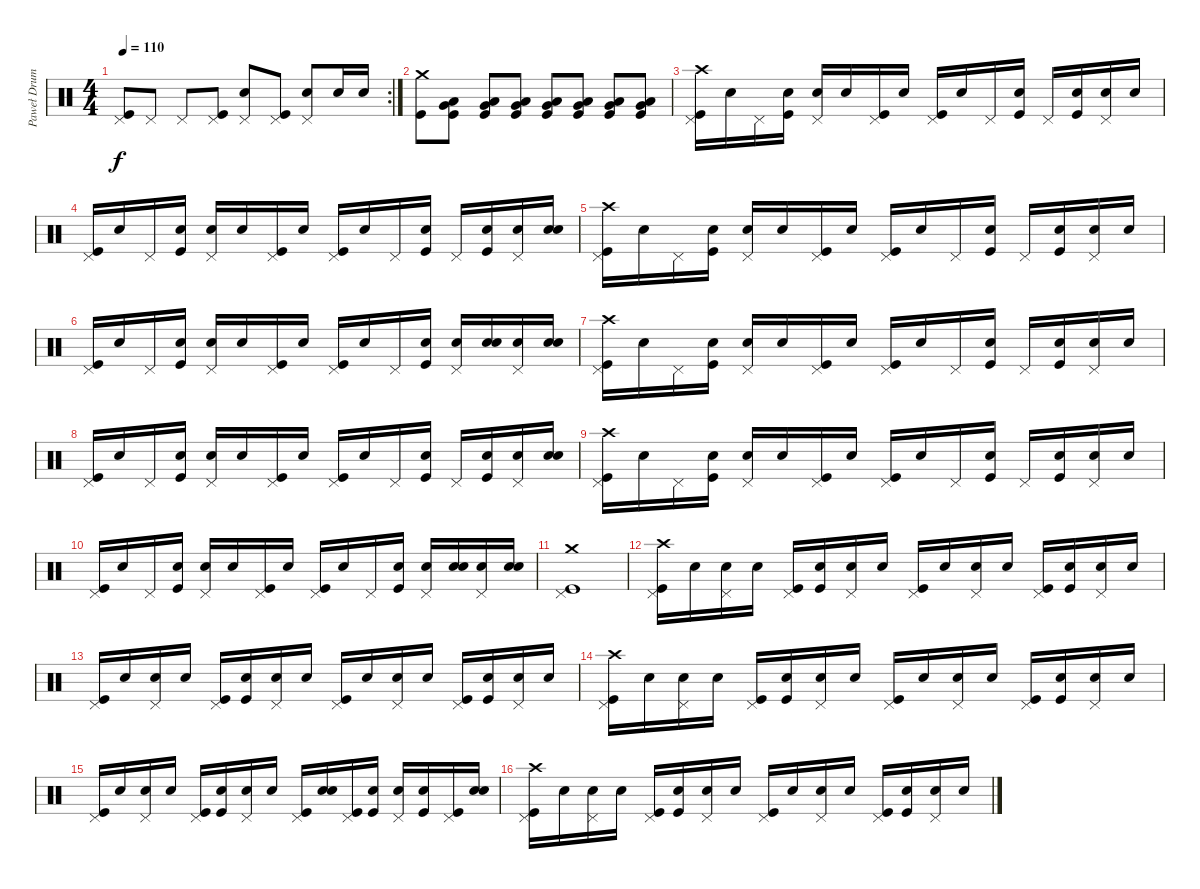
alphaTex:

\track ("Paweł Drums" "Paweł Drum") {instrument percussion}
\staff {score}
\articulation defaults
\rc 2
\ts (4 4)
\tempo 110
\clef neutral
\ks c
("Pedal Hi-Hat (hit)" "Kick (hit)").8{dy f} "Pedal Hi-Hat (hit)".8 "Pedal Hi-Hat (hit)".8 ("Pedal Hi-Hat (hit)" "Kick (hit)").8 ("Pedal Hi-Hat (hit)" "Snare (hit) 2").8 ("Pedal Hi-Hat (hit)" "Kick (hit)").8 ("Pedal Hi-Hat (hit)" "Snare (hit) 2").8 "Snare (hit) 2".16 "Snare (hit) 2".16 |
("Crash medium (hit)" "Kick (hit)").8 ("Low Tom (hit)" "Very Low Tom (hit)" "Kick (hit)").8 ("Low Tom (hit)" "Very Low Tom (hit)" "Kick (hit)").8 ("Low Tom (hit)" "Very Low Tom (hit)" "Kick (hit)").8 ("Low Tom (hit)" "Very Low Tom (hit)" "Kick (hit)").8 ("Low Tom (hit)" "Very Low Tom (hit)" "Kick (hit)").8 ("Low Tom (hit)" "Very Low Tom (hit)" "Kick (hit)").8 ("Low Tom (hit)" "Very Low Tom (hit)" "Kick (hit)").8 |
("Pedal Hi-Hat (hit)" "Crash high (hit)" "Kick (hit)").16 "Snare (hit)".16 "Pedal Hi-Hat (hit)".16 ("Snare (hit)" "Kick (hit)").16 ("Pedal Hi-Hat (hit)" "Snare (hit) 2").16 "Snare (hit)".16 ("Pedal Hi-Hat (hit)" "Kick (hit)").16 "Snare (hit)".16 ("Pedal Hi-Hat (hit)" "Kick (hit)").16 "Snare (hit)".16 "Pedal Hi-Hat (hit)".16 ("Snare (hit)" "Kick (hit)").16 "Pedal Hi-Hat (hit)".16 ("Snare (hit)" "Kick (hit)").16 ("Pedal Hi-Hat (hit)" "Snare (hit) 2").16 "Snare (hit) 2".16 |
("Pedal Hi-Hat (hit)" "Kick (hit)").16 "Snare (hit)".16 "Pedal Hi-Hat (hit)".16 ("Snare (hit)" "Kick (hit)").16 ("Pedal Hi-Hat (hit)" "Snare (hit) 2").16 "Snare (hit)".16 ("Pedal Hi-Hat (hit)" "Kick (hit)").16 "Snare (hit)".16 ("Pedal Hi-Hat (hit)" "Kick (hit)").16 "Snare (hit)".16 "Pedal Hi-Hat (hit)".16 ("Snare (hit)" "Kick (hit)").16 "Pedal Hi-Hat (hit)".16 ("Snare (hit)" "Kick (hit)").16 ("Pedal Hi-Hat (hit)" "Snare (hit) 2").16 ("Snare (hit)" "Snare (hit) 2").16 |
("Pedal Hi-Hat (hit)" "Crash high (hit)" "Kick (hit)").16 "Snare (hit)".16 "Pedal Hi-Hat (hit)".16 ("Snare (hit)" "Kick (hit)").16 ("Pedal Hi-Hat (hit)" "Snare (hit) 2").16 "Snare (hit)".16 ("Pedal Hi-Hat (hit)" "Kick (hit)").16 "Snare (hit)".16 ("Pedal Hi-Hat (hit)" "Kick (hit)").16 "Snare (hit)".16 "Pedal Hi-Hat (hit)".16 ("Snare (hit)" "Kick (hit)").16 "Pedal Hi-Hat (hit)".16 ("Snare (hit)" "Kick (hit)").16 ("Pedal Hi-Hat (hit)" "Snare (hit) 2").16 "Snare (hit) 2".16 |
("Pedal Hi-Hat (hit)" "Kick (hit)").16 "Snare (hit)".16 "Pedal Hi-Hat (hit)".16 ("Snare (hit)" "Kick (hit)").16 ("Pedal Hi-Hat (hit)" "Snare (hit) 2").16 "Snare (hit)".16 ("Pedal Hi-Hat (hit)" "Kick (hit)").16 "Snare (hit)".16 ("Pedal Hi-Hat (hit)" "Kick (hit)").16 "Snare (hit)".16 "Pedal Hi-Hat (hit)".16 ("Snare (hit)" "Kick (hit)").16 ("Pedal Hi-Hat (hit)" "Snare (hit) 2").16 ("Snare (hit)" "Snare (hit) 2").16 ("Pedal Hi-Hat (hit)" "Snare (hit) 2").16 ("Snare (hit)" "Snare (hit) 2").16 |
("Pedal Hi-Hat (hit)" "Crash high (hit)" "Kick (hit)").16 "Snare (hit)".16 "Pedal Hi-Hat (hit)".16 ("Snare (hit)" "Kick (hit)").16 ("Pedal Hi-Hat (hit)" "Snare (hit) 2").16 "Snare (hit)".16 ("Pedal Hi-Hat (hit)" "Kick (hit)").16 "Snare (hit)".16 ("Pedal Hi-Hat (hit)" "Kick (hit)").16 "Snare (hit)".16 "Pedal Hi-Hat (hit)".16 ("Snare (hit)" "Kick (hit)").16 "Pedal Hi-Hat (hit)".16 ("Snare (hit)" "Kick (hit)").16 ("Pedal Hi-Hat (hit)" "Snare (hit) 2").16 "Snare (hit) 2".16 |
("Pedal Hi-Hat (hit)" "Kick (hit)").16 "Snare (hit)".16 "Pedal Hi-Hat (hit)".16 ("Snare (hit)" "Kick (hit)").16 ("Pedal Hi-Hat (hit)" "Snare (hit) 2").16 "Snare (hit)".16 ("Pedal Hi-Hat (hit)" "Kick (hit)").16 "Snare (hit)".16 ("Pedal Hi-Hat (hit)" "Kick (hit)").16 "Snare (hit)".16 "Pedal Hi-Hat (hit)".16 ("Snare (hit)" "Kick (hit)").16 "Pedal Hi-Hat (hit)".16 ("Snare (hit)" "Kick (hit)").16 ("Pedal Hi-Hat (hit)" "Snare (hit) 2").16 ("Snare (hit)" "Snare (hit) 2").16 |
("Pedal Hi-Hat (hit)" "Crash high (hit)" "Kick (hit)").16 "Snare (hit)".16 "Pedal Hi-Hat (hit)".16 ("Snare (hit)" "Kick (hit)").16 ("Pedal Hi-Hat (hit)" "Snare (hit) 2").16 "Snare (hit)".16 ("Pedal Hi-Hat (hit)" "Kick (hit)").16 "Snare (hit)".16 ("Pedal Hi-Hat (hit)" "Kick (hit)").16 "Snare (hit)".16 "Pedal Hi-Hat (hit)".16 ("Snare (hit)" "Kick (hit)").16 "Pedal Hi-Hat (hit)".16 ("Snare (hit)" "Kick (hit)").16 ("Pedal Hi-Hat (hit)" "Snare (hit) 2").16 "Snare (hit) 2".16 |
("Pedal Hi-Hat (hit)" "Kick (hit)").16 "Snare (hit)".16 "Pedal Hi-Hat (hit)".16 ("Snare (hit)" "Kick (hit)").16 ("Pedal Hi-Hat (hit)" "Snare (hit) 2").16 "Snare (hit)".16 ("Pedal Hi-Hat (hit)" "Kick (hit)").16 "Snare (hit)".16 ("Pedal Hi-Hat (hit)" "Kick (hit)").16 "Snare (hit)".16 "Pedal Hi-Hat (hit)".16 ("Snare (hit)" "Kick (hit)").16 ("Pedal Hi-Hat (hit)" "Snare (hit) 2").16 ("Snare (hit)" "Snare (hit) 2").16 ("Pedal Hi-Hat (hit)" "Snare (hit) 2").16 ("Snare (hit)" "Snare (hit) 2").16 |
("Pedal Hi-Hat (hit)" "Crash medium (hit)" "Kick (hit)").1 |
("Pedal Hi-Hat (hit)" "Crash high (hit)" "Kick (hit)").16 "Snare (hit)".16 ("Pedal Hi-Hat (hit)" "Snare (hit) 2").16 "Snare (hit)".16 ("Pedal Hi-Hat (hit)" "Kick (hit)").16 ("Snare (hit)" "Kick (hit)").16 ("Pedal Hi-Hat (hit)" "Snare (hit) 2").16 "Snare (hit)".16 ("Pedal Hi-Hat (hit)" "Kick (hit)").16 "Snare (hit)".16 ("Pedal Hi-Hat (hit)" "Snare (hit) 2").16 "Snare (hit)".16 ("Pedal Hi-Hat (hit)" "Kick (hit)").16 ("Snare (hit)" "Kick (hit)").16 ("Pedal Hi-Hat (hit)" "Snare (hit) 2").16 "Snare (hit)".16 |
("Pedal Hi-Hat (hit)" "Kick (hit)").16 "Snare (hit)".16 ("Pedal Hi-Hat (hit)" "Snare (hit) 2").16 "Snare (hit)".16 ("Pedal Hi-Hat (hit)" "Kick (hit)").16 ("Snare (hit)" "Kick (hit)").16 ("Pedal Hi-Hat (hit)" "Snare (hit) 2").16 "Snare (hit)".16 ("Pedal Hi-Hat (hit)" "Kick (hit)").16 "Snare (hit)".16 ("Pedal Hi-Hat (hit)" "Snare (hit) 2").16 "Snare (hit)".16 ("Pedal Hi-Hat (hit)" "Kick (hit)").16 ("Snare (hit)" "Kick (hit)").16 ("Pedal Hi-Hat (hit)" "Snare (hit) 2").16 "Snare (hit)".16 |
("Pedal Hi-Hat (hit)" "Crash high (hit)" "Kick (hit)").16 "Snare (hit)".16 ("Pedal Hi-Hat (hit)" "Snare (hit) 2").16 "Snare (hit)".16 ("Pedal Hi-Hat (hit)" "Kick (hit)").16 ("Snare (hit)" "Kick (hit)").16 ("Pedal Hi-Hat (hit)" "Snare (hit) 2").16 "Snare (hit)".16 ("Pedal Hi-Hat (hit)" "Kick (hit)").16 "Snare (hit)".16 ("Pedal Hi-Hat (hit)" "Snare (hit) 2").16 "Snare (hit)".16 ("Pedal Hi-Hat (hit)" "Kick (hit)").16 ("Snare (hit)" "Kick (hit)").16 ("Pedal Hi-Hat (hit)" "Snare (hit) 2").16 "Snare (hit)".16 |
("Pedal Hi-Hat (hit)" "Kick (hit)").16 "Snare (hit)".16 ("Pedal Hi-Hat (hit)" "Snare (hit) 2").16 "Snare (hit)".16 ("Pedal Hi-Hat (hit)" "Kick (hit)").16 ("Snare (hit)" "Kick (hit)").16 ("Pedal Hi-Hat (hit)" "Snare (hit) 2").16 "Snare (hit)".16 ("Pedal Hi-Hat (hit)" "Kick (hit)").16 ("Snare (hit)" "Snare (hit) 2").16 ("Pedal Hi-Hat (hit)" "Kick (hit)").16 ("Snare (hit)" "Kick (hit)").16 ("Pedal Hi-Hat (hit)" "Snare (hit) 2").16 ("Snare (hit)" "Kick (hit)").16 ("Pedal Hi-Hat (hit)" "Kick (hit)").16 ("Snare (hit)" "Snare (hit) 2").16 |
("Pedal Hi-Hat (hit)" "Crash high (hit)" "Kick (hit)").16 "Snare (hit)".16 ("Pedal Hi-Hat (hit)" "Snare (hit) 2").16 "Snare (hit)".16 ("Pedal Hi-Hat (hit)" "Kick (hit)").16 ("Snare (hit)" "Kick (hit)").16 ("Pedal Hi-Hat (hit)" "Snare (hit) 2").16 "Snare (hit)".16 ("Pedal Hi-Hat (hit)" "Kick (hit)").16 "Snare (hit)".16 ("Pedal Hi-Hat (hit)" "Snare (hit) 2").16 "Snare (hit)".16 ("Pedal Hi-Hat (hit)" "Kick (hit)").16 ("Snare (hit)" "Kick (hit)").16 ("Pedal Hi-Hat (hit)" "Snare (hit) 2").16 "Snare (hit)".16
